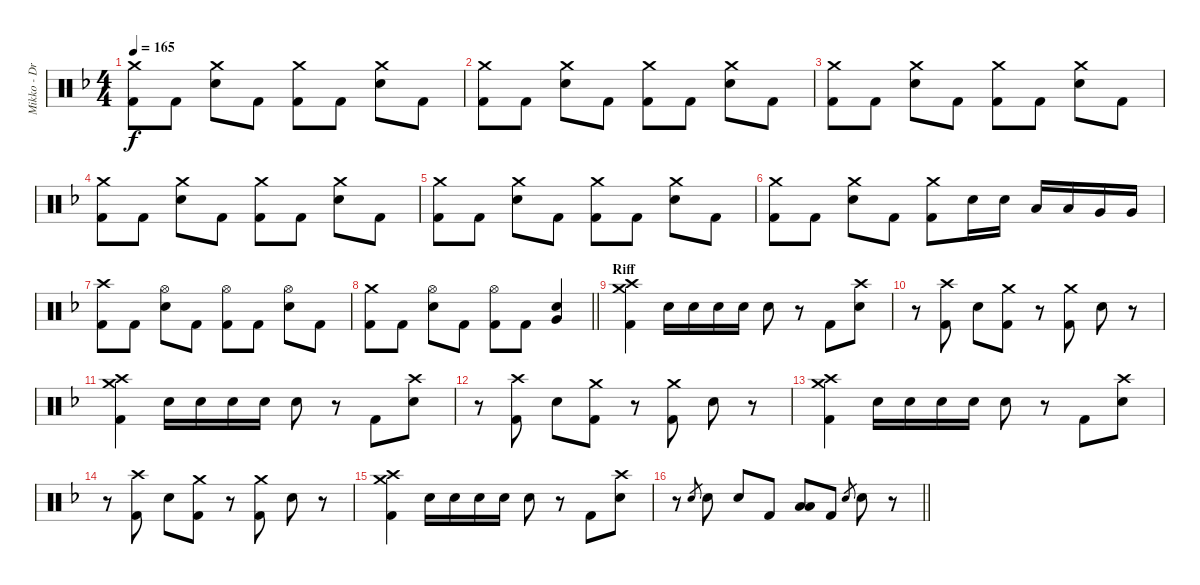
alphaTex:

\track ("Mikko - Drums" "Mikko - Dr") {instrument percussion}
\staff {score}
\articulation defaults
\ts (4 4)
\tempo 165
\clef neutral
\ks dminor
("Crash medium (hit)" "Kick (hit) 2").8{dy f} "Kick (hit) 2".8 ("Crash medium (hit)" "Snare (hit) 2").8 "Kick (hit) 2".8 ("Crash medium (hit)" "Kick (hit) 2").8 "Kick (hit) 2".8 ("Crash medium (hit)" "Snare (hit) 2").8 "Kick (hit) 2".8 |
("Crash medium (hit)" "Kick (hit) 2").8 "Kick (hit) 2".8 ("Crash medium (hit)" "Snare (hit) 2").8 "Kick (hit) 2".8 ("Crash medium (hit)" "Kick (hit) 2").8 "Kick (hit) 2".8 ("Crash medium (hit)" "Snare (hit) 2").8 "Kick (hit) 2".8 |
("Crash medium (hit)" "Kick (hit) 2").8 "Kick (hit) 2".8 ("Crash medium (hit)" "Snare (hit) 2").8 "Kick (hit) 2".8 ("Crash medium (hit)" "Kick (hit) 2").8 "Kick (hit) 2".8 ("Crash medium (hit)" "Snare (hit) 2").8 "Kick (hit) 2".8 |
("Crash medium (hit)" "Kick (hit) 2").8 "Kick (hit) 2".8 ("Crash medium (hit)" "Snare (hit) 2").8 "Kick (hit) 2".8 ("Crash medium (hit)" "Kick (hit) 2").8 "Kick (hit) 2".8 ("Crash medium (hit)" "Snare (hit) 2").8 "Kick (hit) 2".8 |
("Crash medium (hit)" "Kick (hit) 2").8 "Kick (hit) 2".8 ("Crash medium (hit)" "Snare (hit) 2").8 "Kick (hit) 2".8 ("Crash medium (hit)" "Kick (hit) 2").8 "Kick (hit) 2".8 ("Crash medium (hit)" "Snare (hit) 2").8 "Kick (hit) 2".8 |
("Crash medium (hit)" "Kick (hit) 2").8 "Kick (hit) 2".8 ("Crash medium (hit)" "Snare (hit) 2").8 "Kick (hit) 2".8 ("Crash medium (hit)" "Kick (hit) 2").8 "Snare (hit) 2".16 "Snare (hit) 2".16 "Low Tom (hit)".16 "Low Tom (hit)".16 "Very Low Tom (hit)".16 "Very Low Tom (hit)".16 |
("Crash high (hit)" "Kick (hit) 2").8 "Kick (hit) 2".8 ("Hi-Hat (open)" "Snare (hit) 2").8 "Kick (hit) 2".8 ("Hi-Hat (open)" "Kick (hit) 2").8 "Kick (hit) 2".8 ("Hi-Hat (open)" "Snare (hit) 2").8 "Kick (hit) 2".8 |
\barLineRight lightlight
("Crash medium (hit)" "Kick (hit) 2").8 "Kick (hit) 2".8 ("Hi-Hat (open)" "Snare (hit) 2").8 "Kick (hit) 2".8 ("Hi-Hat (open)" "Kick (hit) 2").8 "Kick (hit) 2".8 ("Snare (hit) 2" "Very Low Tom (hit)").4 |
\section ("" "Riff")
("Crash medium (hit)" "Crash high (hit)" "Kick (hit) 2").4 "Snare (hit) 2".16 "Snare (hit) 2".16 "Snare (hit) 2".16 "Snare (hit) 2".16 "Snare (hit) 2".8 r.8 "Kick (hit) 2".8 ("Crash high (hit)" "Snare (hit) 2").8 |
r.8 ("Crash high (hit)" "Kick (hit) 2").8 "Snare (hit) 2".8 ("Crash medium (hit)" "Kick (hit) 2").8 r.8 ("Crash medium (hit)" "Kick (hit) 2").8 "Snare (hit) 2".8 r.8 |
("Crash medium (hit)" "Crash high (hit)" "Kick (hit) 2").4 "Snare (hit) 2".16 "Snare (hit) 2".16 "Snare (hit) 2".16 "Snare (hit) 2".16 "Snare (hit) 2".8 r.8 "Kick (hit) 2".8 ("Crash high (hit)" "Snare (hit) 2").8 |
r.8 ("Crash high (hit)" "Kick (hit) 2").8 "Snare (hit) 2".8 ("Crash medium (hit)" "Kick (hit) 2").8 r.8 ("Crash medium (hit)" "Kick (hit) 2").8 "Snare (hit) 2".8 r.8 |
("Crash medium (hit)" "Crash high (hit)" "Kick (hit) 2").4 "Snare (hit) 2".16 "Snare (hit) 2".16 "Snare (hit) 2".16 "Snare (hit) 2".16 "Snare (hit) 2".8 r.8 "Kick (hit) 2".8 ("Crash high (hit)" "Snare (hit) 2").8 |
r.8 ("Crash high (hit)" "Kick (hit) 2").8 "Snare (hit) 2".8 ("Crash medium (hit)" "Kick (hit) 2").8 r.8 ("Crash medium (hit)" "Kick (hit) 2").8 "Snare (hit) 2".8 r.8 |
("Crash medium (hit)" "Crash high (hit)" "Kick (hit) 2").4 "Snare (hit) 2".16 "Snare (hit) 2".16 "Snare (hit) 2".16 "Snare (hit) 2".16 "Snare (hit) 2".8 r.8 "Kick (hit) 2".8 ("Crash high (hit)" "Snare (hit) 2").8 |
\barLineRight lightlight
r.8 "Snare (hit) 2".8{gr} "Snare (hit) 2".8 "Snare (hit) 2".8 "Kick (hit) 2".8 ("Low Tom (hit)" "Low Tom (hit)").8 "Kick (hit) 2".8 "Snare (hit) 2".8{gr} "Snare (hit) 2".8 r.8
